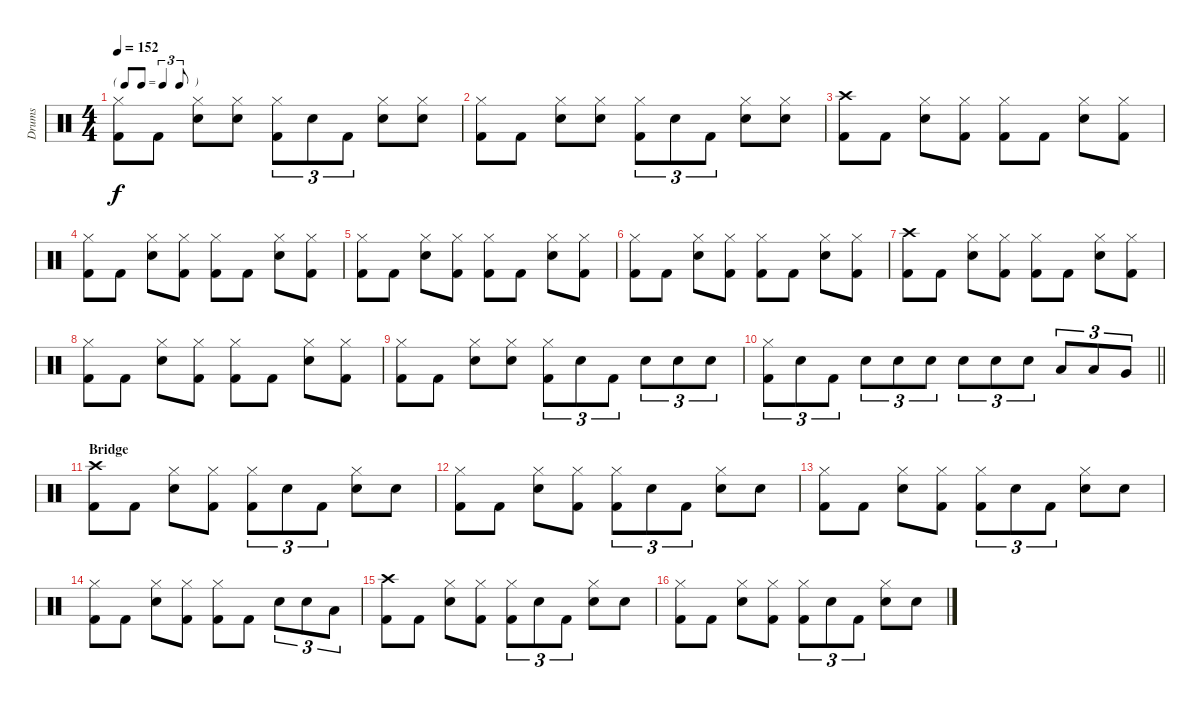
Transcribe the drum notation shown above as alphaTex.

\track ("Drums" "Drums") {instrument percussion}
\staff {score}
\articulation defaults
\ts (4 4)
\tf triplet8th
\tempo 152
\clef neutral
\ks c
("Hi-Hat (closed)" "Kick (hit) 2").8{dy f} "Kick (hit) 2".8 ("Hi-Hat (closed)" "Snare (hit) 2").8 ("Hi-Hat (closed)" "Snare (hit) 2").8 ("Hi-Hat (closed)" "Kick (hit) 2").8{tu (3 2)} "Snare (hit) 2".8{tu (3 2)} "Kick (hit) 2".8{tu (3 2)} ("Hi-Hat (closed)" "Snare (hit) 2").8 ("Hi-Hat (closed)" "Snare (hit) 2").8 |
("Hi-Hat (closed)" "Kick (hit) 2").8 "Kick (hit) 2".8 ("Hi-Hat (closed)" "Snare (hit) 2").8 ("Hi-Hat (closed)" "Snare (hit) 2").8 ("Hi-Hat (closed)" "Kick (hit) 2").8{tu (3 2)} "Snare (hit) 2".8{tu (3 2)} "Kick (hit) 2".8{tu (3 2)} ("Hi-Hat (closed)" "Snare (hit) 2").8 ("Hi-Hat (closed)" "Snare (hit) 2").8 |
("Crash high (hit)" "Kick (hit) 2").8 "Kick (hit) 2".8 ("Hi-Hat (closed)" "Snare (hit) 2").8 ("Hi-Hat (closed)" "Kick (hit) 2").8 ("Hi-Hat (closed)" "Kick (hit) 2").8 "Kick (hit) 2".8 ("Hi-Hat (closed)" "Snare (hit) 2").8 ("Hi-Hat (closed)" "Kick (hit) 2").8 |
("Hi-Hat (closed)" "Kick (hit) 2").8 "Kick (hit) 2".8 ("Hi-Hat (closed)" "Snare (hit) 2").8 ("Hi-Hat (closed)" "Kick (hit) 2").8 ("Hi-Hat (closed)" "Kick (hit) 2").8 "Kick (hit) 2".8 ("Hi-Hat (closed)" "Snare (hit) 2").8 ("Hi-Hat (closed)" "Kick (hit) 2").8 |
("Hi-Hat (closed)" "Kick (hit) 2").8 "Kick (hit) 2".8 ("Hi-Hat (closed)" "Snare (hit) 2").8 ("Hi-Hat (closed)" "Kick (hit) 2").8 ("Hi-Hat (closed)" "Kick (hit) 2").8 "Kick (hit) 2".8 ("Hi-Hat (closed)" "Snare (hit) 2").8 ("Hi-Hat (closed)" "Kick (hit) 2").8 |
("Hi-Hat (closed)" "Kick (hit) 2").8 "Kick (hit) 2".8 ("Hi-Hat (closed)" "Snare (hit) 2").8 ("Hi-Hat (closed)" "Kick (hit) 2").8 ("Hi-Hat (closed)" "Kick (hit) 2").8 "Kick (hit) 2".8 ("Hi-Hat (closed)" "Snare (hit) 2").8 ("Hi-Hat (closed)" "Kick (hit) 2").8 |
("Crash high (hit)" "Kick (hit) 2").8 "Kick (hit) 2".8 ("Hi-Hat (closed)" "Snare (hit) 2").8 ("Hi-Hat (closed)" "Kick (hit) 2").8 ("Hi-Hat (closed)" "Kick (hit) 2").8 "Kick (hit) 2".8 ("Hi-Hat (closed)" "Snare (hit) 2").8 ("Hi-Hat (closed)" "Kick (hit) 2").8 |
("Hi-Hat (closed)" "Kick (hit) 2").8 "Kick (hit) 2".8 ("Hi-Hat (closed)" "Snare (hit) 2").8 ("Hi-Hat (closed)" "Kick (hit) 2").8 ("Hi-Hat (closed)" "Kick (hit) 2").8 "Kick (hit) 2".8 ("Hi-Hat (closed)" "Snare (hit) 2").8 ("Hi-Hat (closed)" "Kick (hit) 2").8 |
("Hi-Hat (closed)" "Kick (hit) 2").8 "Kick (hit) 2".8 ("Hi-Hat (closed)" "Snare (hit) 2").8 ("Hi-Hat (closed)" "Snare (hit) 2").8 ("Hi-Hat (closed)" "Kick (hit) 2").8{tu (3 2)} "Snare (hit) 2".8{tu (3 2)} "Kick (hit) 2".8{tu (3 2)} "Snare (hit) 2".8{tu (3 2)} "Snare (hit) 2".8{tu (3 2)} "Snare (hit) 2".8{tu (3 2)} |
\barLineRight lightlight
("Hi-Hat (closed)" "Kick (hit) 2").8{tu (3 2)} "Snare (hit) 2".8{tu (3 2)} "Kick (hit) 2".8{tu (3 2)} "Snare (hit) 2".8{tu (3 2)} "Snare (hit) 2".8{tu (3 2)} "Snare (hit) 2".8{tu (3 2)} "Snare (hit) 2".8{tu (3 2)} "Snare (hit) 2".8{tu (3 2)} "Snare (hit) 2".8{tu (3 2)} "Low Tom (hit)".8{tu (3 2)} "Low Tom (hit)".8{tu (3 2)} "Very Low Tom (hit)".8{tu (3 2)} |
\section ("" "Bridge")
("Crash high (hit)" "Kick (hit) 2").8 "Kick (hit) 2".8 ("Hi-Hat (closed)" "Snare (hit) 2").8 ("Hi-Hat (closed)" "Kick (hit) 2").8 ("Hi-Hat (closed)" "Kick (hit) 2").8{tu (3 2)} "Snare (hit) 2".8{tu (3 2)} "Kick (hit) 2".8{tu (3 2)} ("Hi-Hat (closed)" "Snare (hit) 2").8 "Snare (hit) 2".8 |
("Hi-Hat (closed)" "Kick (hit) 2").8 "Kick (hit) 2".8 ("Hi-Hat (closed)" "Snare (hit) 2").8 ("Hi-Hat (closed)" "Kick (hit) 2").8 ("Hi-Hat (closed)" "Kick (hit) 2").8{tu (3 2)} "Snare (hit) 2".8{tu (3 2)} "Kick (hit) 2".8{tu (3 2)} ("Hi-Hat (closed)" "Snare (hit) 2").8 "Snare (hit) 2".8 |
("Hi-Hat (closed)" "Kick (hit) 2").8 "Kick (hit) 2".8 ("Hi-Hat (closed)" "Snare (hit) 2").8 ("Hi-Hat (closed)" "Kick (hit) 2").8 ("Hi-Hat (closed)" "Kick (hit) 2").8{tu (3 2)} "Snare (hit) 2".8{tu (3 2)} "Kick (hit) 2".8{tu (3 2)} ("Hi-Hat (closed)" "Snare (hit) 2").8 "Snare (hit) 2".8 |
("Hi-Hat (closed)" "Kick (hit) 2").8 "Kick (hit) 2".8 ("Hi-Hat (closed)" "Snare (hit) 2").8 ("Hi-Hat (closed)" "Kick (hit) 2").8 ("Hi-Hat (closed)" "Kick (hit) 2").8 "Kick (hit) 2".8 "Snare (hit) 2".8{tu (3 2)} "Snare (hit) 2".8{tu (3 2)} "Low Tom (hit)".8{tu (3 2)} |
("Crash high (hit)" "Kick (hit) 2").8 "Kick (hit) 2".8 ("Hi-Hat (closed)" "Snare (hit) 2").8 ("Hi-Hat (closed)" "Kick (hit) 2").8 ("Hi-Hat (closed)" "Kick (hit) 2").8{tu (3 2)} "Snare (hit) 2".8{tu (3 2)} "Kick (hit) 2".8{tu (3 2)} ("Hi-Hat (closed)" "Snare (hit) 2").8 "Snare (hit) 2".8 |
("Hi-Hat (closed)" "Kick (hit) 2").8 "Kick (hit) 2".8 ("Hi-Hat (closed)" "Snare (hit) 2").8 ("Hi-Hat (closed)" "Kick (hit) 2").8 ("Hi-Hat (closed)" "Kick (hit) 2").8{tu (3 2)} "Snare (hit) 2".8{tu (3 2)} "Kick (hit) 2".8{tu (3 2)} ("Hi-Hat (closed)" "Snare (hit) 2").8 "Snare (hit) 2".8
